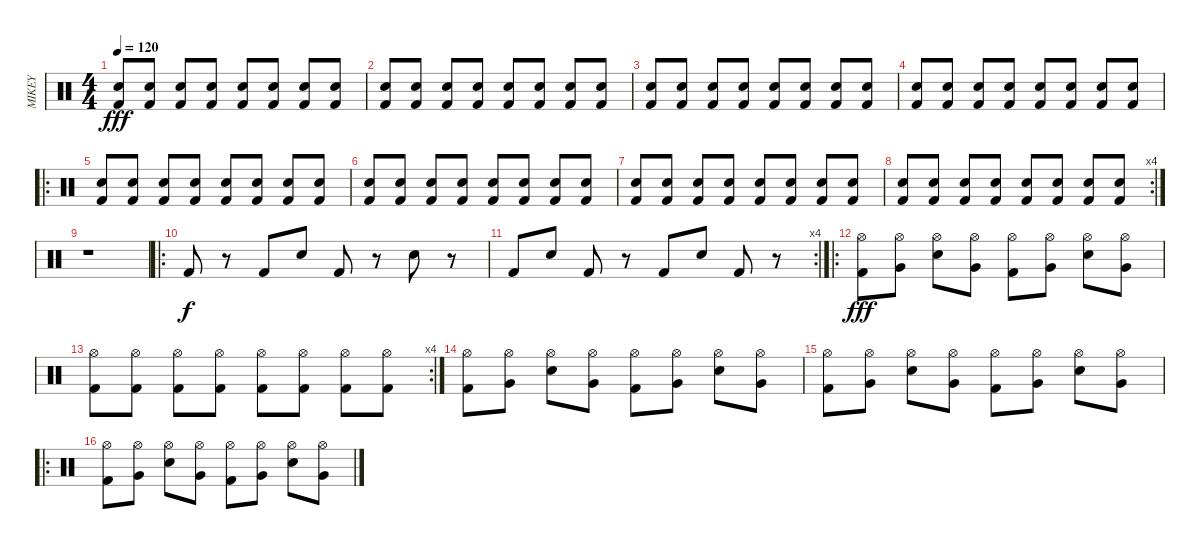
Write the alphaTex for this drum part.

\track ("MIKEY" "MIKEY") {instrument percussion}
\staff {score}
\articulation defaults
\ts (4 4)
\tempo 120
\clef neutral
\ks c
("Kick (hit) 2" "Electric Snare (hit)").8{dy fff} ("Kick (hit) 2" "Electric Snare (hit)").8 ("Kick (hit) 2" "Electric Snare (hit)").8 ("Kick (hit) 2" "Electric Snare (hit)").8 ("Kick (hit) 2" "Electric Snare (hit)").8 ("Kick (hit) 2" "Electric Snare (hit)").8 ("Kick (hit) 2" "Electric Snare (hit)").8 ("Kick (hit) 2" "Electric Snare (hit)").8 |
("Kick (hit) 2" "Electric Snare (hit)").8 ("Kick (hit) 2" "Electric Snare (hit)").8 ("Kick (hit) 2" "Electric Snare (hit)").8 ("Kick (hit) 2" "Electric Snare (hit)").8 ("Kick (hit) 2" "Electric Snare (hit)").8 ("Kick (hit) 2" "Electric Snare (hit)").8 ("Kick (hit) 2" "Electric Snare (hit)").8 ("Kick (hit) 2" "Electric Snare (hit)").8 |
("Kick (hit) 2" "Electric Snare (hit)").8 ("Kick (hit) 2" "Electric Snare (hit)").8 ("Kick (hit) 2" "Electric Snare (hit)").8 ("Kick (hit) 2" "Electric Snare (hit)").8 ("Kick (hit) 2" "Electric Snare (hit)").8 ("Kick (hit) 2" "Electric Snare (hit)").8 ("Kick (hit) 2" "Electric Snare (hit)").8 ("Kick (hit) 2" "Electric Snare (hit)").8 |
("Kick (hit) 2" "Electric Snare (hit)").8 ("Kick (hit) 2" "Electric Snare (hit)").8 ("Kick (hit) 2" "Electric Snare (hit)").8 ("Kick (hit) 2" "Electric Snare (hit)").8 ("Kick (hit) 2" "Electric Snare (hit)").8 ("Kick (hit) 2" "Electric Snare (hit)").8 ("Kick (hit) 2" "Electric Snare (hit)").8 ("Kick (hit) 2" "Electric Snare (hit)").8 |
\ro
("Kick (hit) 2" "Electric Snare (hit)").8 ("Kick (hit) 2" "Electric Snare (hit)").8 ("Kick (hit) 2" "Electric Snare (hit)").8 ("Kick (hit) 2" "Electric Snare (hit)").8 ("Kick (hit) 2" "Electric Snare (hit)").8 ("Kick (hit) 2" "Electric Snare (hit)").8 ("Kick (hit) 2" "Electric Snare (hit)").8 ("Kick (hit) 2" "Electric Snare (hit)").8 |
("Kick (hit) 2" "Electric Snare (hit)").8 ("Kick (hit) 2" "Electric Snare (hit)").8 ("Kick (hit) 2" "Electric Snare (hit)").8 ("Kick (hit) 2" "Electric Snare (hit)").8 ("Kick (hit) 2" "Electric Snare (hit)").8 ("Kick (hit) 2" "Electric Snare (hit)").8 ("Kick (hit) 2" "Electric Snare (hit)").8 ("Kick (hit) 2" "Electric Snare (hit)").8 |
("Kick (hit) 2" "Electric Snare (hit)").8 ("Kick (hit) 2" "Electric Snare (hit)").8 ("Kick (hit) 2" "Electric Snare (hit)").8 ("Kick (hit) 2" "Electric Snare (hit)").8 ("Kick (hit) 2" "Electric Snare (hit)").8 ("Kick (hit) 2" "Electric Snare (hit)").8 ("Kick (hit) 2" "Electric Snare (hit)").8 ("Kick (hit) 2" "Electric Snare (hit)").8 |
\rc 4
("Kick (hit) 2" "Electric Snare (hit)").8 ("Kick (hit) 2" "Electric Snare (hit)").8 ("Kick (hit) 2" "Electric Snare (hit)").8 ("Kick (hit) 2" "Electric Snare (hit)").8 ("Kick (hit) 2" "Electric Snare (hit)").8 ("Kick (hit) 2" "Electric Snare (hit)").8 ("Kick (hit) 2" "Electric Snare (hit)").8 ("Kick (hit) 2" "Electric Snare (hit)").8 |
r.1 |
\ro "Kick (hit) 2".8{dy f}
r.8 "Kick (hit) 2".8 "Snare (hit) 2".8 "Kick (hit) 2".8 r.8 "Snare (hit) 2".8 r.8 |
\rc 4 "Kick (hit) 2".8 "Snare (hit) 2".8 "Kick (hit) 2".8
r.8 "Kick (hit) 2".8 "Snare (hit) 2".8 "Kick (hit) 2".8 r.8 |
\ro
("Kick (hit) 2" "Hi-Hat (open)").8{dy fff} ("Very Low Tom (hit)" "Hi-Hat (open)").8 ("Electric Snare (hit)" "Hi-Hat (open)").8 ("Very Low Tom (hit)" "Hi-Hat (open)").8 ("Kick (hit) 2" "Hi-Hat (open)").8 ("Very Low Tom (hit)" "Hi-Hat (open)").8 ("Electric Snare (hit)" "Hi-Hat (open)").8 ("Very Low Tom (hit)" "Hi-Hat (open)").8 |
\rc 4
("Kick (hit) 2" "Hi-Hat (open)").8 ("Kick (hit) 2" "Hi-Hat (open)").8 ("Kick (hit) 2" "Hi-Hat (open)").8 ("Kick (hit) 2" "Hi-Hat (open)").8 ("Kick (hit) 2" "Hi-Hat (open)").8 ("Kick (hit) 2" "Hi-Hat (open)").8 ("Kick (hit) 2" "Hi-Hat (open)").8 ("Kick (hit) 2" "Hi-Hat (open)").8 |
("Kick (hit) 2" "Hi-Hat (open)").8 ("Very Low Tom (hit)" "Hi-Hat (open)").8 ("Electric Snare (hit)" "Hi-Hat (open)").8 ("Very Low Tom (hit)" "Hi-Hat (open)").8 ("Kick (hit) 2" "Hi-Hat (open)").8 ("Very Low Tom (hit)" "Hi-Hat (open)").8 ("Electric Snare (hit)" "Hi-Hat (open)").8 ("Very Low Tom (hit)" "Hi-Hat (open)").8 |
("Kick (hit) 2" "Hi-Hat (open)").8 ("Very Low Tom (hit)" "Hi-Hat (open)").8 ("Electric Snare (hit)" "Hi-Hat (open)").8 ("Very Low Tom (hit)" "Hi-Hat (open)").8 ("Kick (hit) 2" "Hi-Hat (open)").8 ("Very Low Tom (hit)" "Hi-Hat (open)").8 ("Electric Snare (hit)" "Hi-Hat (open)").8 ("Very Low Tom (hit)" "Hi-Hat (open)").8 |
\ro
("Kick (hit) 2" "Hi-Hat (open)").8 ("Very Low Tom (hit)" "Hi-Hat (open)").8 ("Electric Snare (hit)" "Hi-Hat (open)").8 ("Very Low Tom (hit)" "Hi-Hat (open)").8 ("Kick (hit) 2" "Hi-Hat (open)").8 ("Very Low Tom (hit)" "Hi-Hat (open)").8 ("Electric Snare (hit)" "Hi-Hat (open)").8 ("Very Low Tom (hit)" "Hi-Hat (open)").8
